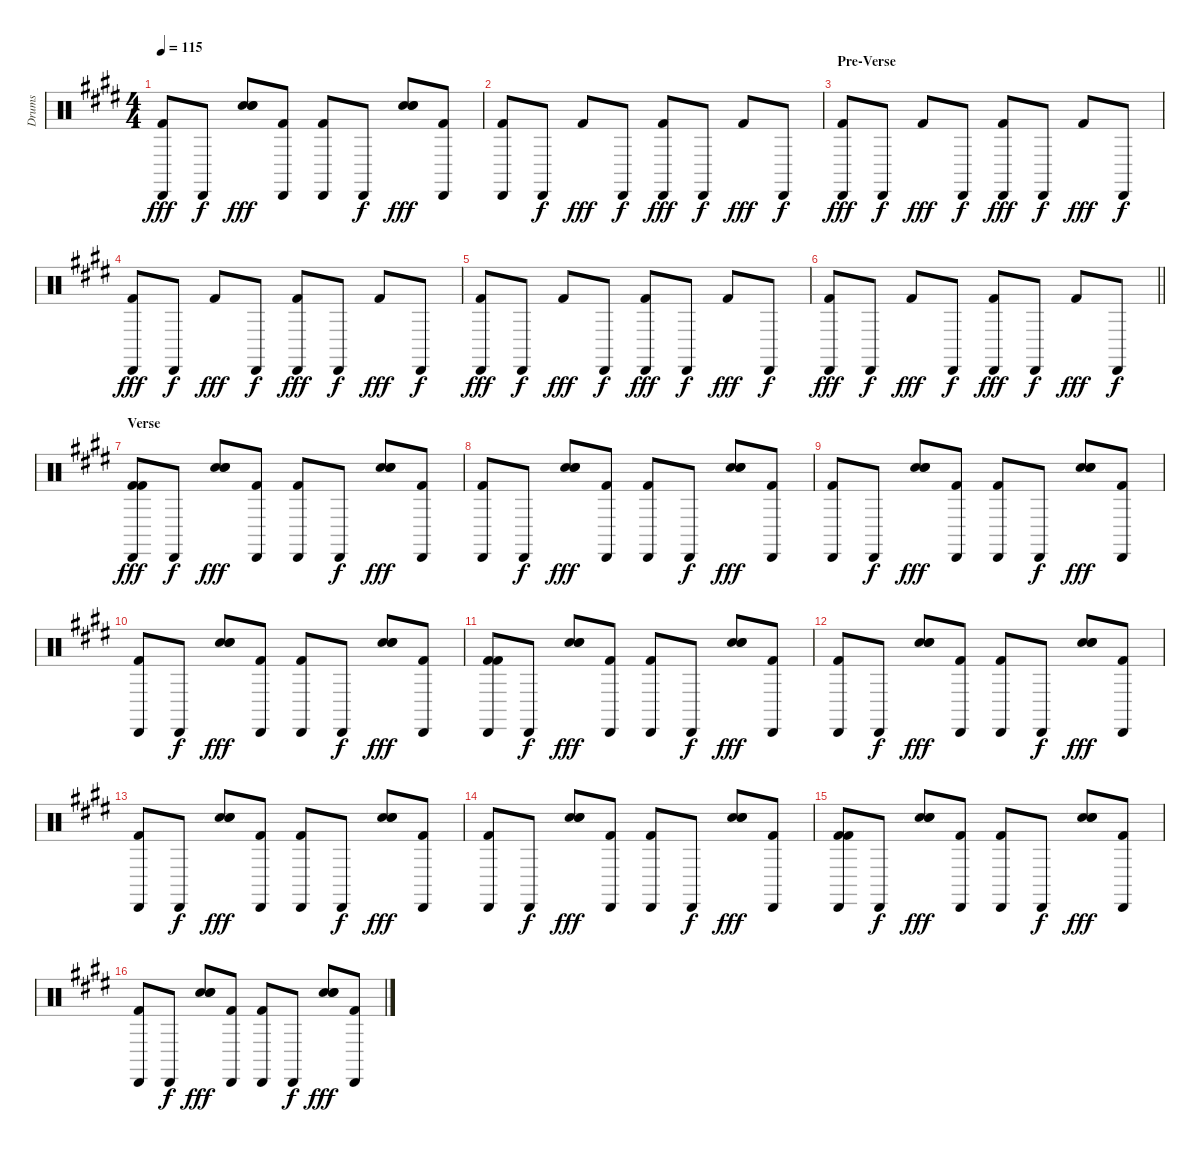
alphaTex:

\track ("Drums" "Drums") {instrument percussion}
\staff {score}
\articulation defaults
\ts (4 4)
\tempo 115
\clef neutral
\ks c#minor
("Cabasa (hit)" "Kick (hit) 2").8{dy fff} "Cabasa (hit)".8{dy f} ("Snare (hit) 2" "Hand Clap (hit)" "Hand Clap (hit)").8{bd 30 dy fff} ("Cabasa (hit)" "Kick (hit) 2").8 ("Cabasa (hit)" "Kick (hit) 2").8 "Cabasa (hit)".8{dy f} ("Snare (hit) 2" "Hand Clap (hit)" "Hand Clap (hit)").8{bd 30 dy fff} ("Cabasa (hit)" "Kick (hit) 2").8 |
("Cabasa (hit)" "Kick (hit) 2").8 "Cabasa (hit)".8{dy f} "Kick (hit) 2".8{dy fff} "Cabasa (hit)".8{dy f} ("Cabasa (hit)" "Kick (hit) 2").8{dy fff} "Cabasa (hit)".8{dy f} "Kick (hit) 2".8{dy fff} "Cabasa (hit)".8{dy f} |
\section ("" "Pre-Verse")
("Cabasa (hit)" "Kick (hit) 2").8{dy fff} "Cabasa (hit)".8{dy f} "Kick (hit) 2".8{dy fff} "Cabasa (hit)".8{dy f} ("Cabasa (hit)" "Kick (hit) 2").8{dy fff} "Cabasa (hit)".8{dy f} "Kick (hit) 2".8{dy fff} "Cabasa (hit)".8{dy f} |
("Cabasa (hit)" "Kick (hit) 2").8{dy fff} "Cabasa (hit)".8{dy f} "Kick (hit) 2".8{dy fff} "Cabasa (hit)".8{dy f} ("Cabasa (hit)" "Kick (hit) 2").8{dy fff} "Cabasa (hit)".8{dy f} "Kick (hit) 2".8{dy fff} "Cabasa (hit)".8{dy f} |
("Cabasa (hit)" "Kick (hit) 2").8{dy fff} "Cabasa (hit)".8{dy f} "Kick (hit) 2".8{dy fff} "Cabasa (hit)".8{dy f} ("Cabasa (hit)" "Kick (hit) 2").8{dy fff} "Cabasa (hit)".8{dy f} "Kick (hit) 2".8{dy fff} "Cabasa (hit)".8{dy f} |
\barLineRight lightlight
("Cabasa (hit)" "Kick (hit) 2").8{dy fff} "Cabasa (hit)".8{dy f} "Kick (hit) 2".8{dy fff} "Cabasa (hit)".8{dy f} ("Cabasa (hit)" "Kick (hit) 2").8{dy fff} "Cabasa (hit)".8{dy f} "Kick (hit) 2".8{dy fff} "Cabasa (hit)".8{dy f} |
\section ("" "Verse")
("Cabasa (hit)" "Kick (hit) 2" "Kick (hit) 2").8{dy fff} "Cabasa (hit)".8{dy f} ("Snare (hit) 2" "Hand Clap (hit)" "Hand Clap (hit)").8{bd 30 dy fff} ("Cabasa (hit)" "Kick (hit) 2").8 ("Cabasa (hit)" "Kick (hit) 2").8 "Cabasa (hit)".8{dy f} ("Snare (hit) 2" "Hand Clap (hit)" "Hand Clap (hit)").8{bd 30 dy fff} ("Cabasa (hit)" "Kick (hit) 2").8 |
("Cabasa (hit)" "Kick (hit) 2").8 "Cabasa (hit)".8{dy f} ("Snare (hit) 2" "Hand Clap (hit)" "Hand Clap (hit)").8{bd 30 dy fff} ("Cabasa (hit)" "Kick (hit) 2").8 ("Cabasa (hit)" "Kick (hit) 2").8 "Cabasa (hit)".8{dy f} ("Snare (hit) 2" "Hand Clap (hit)" "Hand Clap (hit)").8{bd 30 dy fff} ("Cabasa (hit)" "Kick (hit) 2").8 |
("Cabasa (hit)" "Kick (hit) 2").8 "Cabasa (hit)".8{dy f} ("Snare (hit) 2" "Hand Clap (hit)" "Hand Clap (hit)").8{bd 30 dy fff} ("Cabasa (hit)" "Kick (hit) 2").8 ("Cabasa (hit)" "Kick (hit) 2").8 "Cabasa (hit)".8{dy f} ("Snare (hit) 2" "Hand Clap (hit)" "Hand Clap (hit)").8{bd 30 dy fff} ("Cabasa (hit)" "Kick (hit) 2").8 |
("Cabasa (hit)" "Kick (hit) 2").8 "Cabasa (hit)".8{dy f} ("Snare (hit) 2" "Hand Clap (hit)" "Hand Clap (hit)").8{bd 30 dy fff} ("Cabasa (hit)" "Kick (hit) 2").8 ("Cabasa (hit)" "Kick (hit) 2").8 "Cabasa (hit)".8{dy f} ("Snare (hit) 2" "Hand Clap (hit)" "Hand Clap (hit)").8{bd 30 dy fff} ("Cabasa (hit)" "Kick (hit) 2").8 |
("Cabasa (hit)" "Kick (hit) 2" "Kick (hit) 2").8 "Cabasa (hit)".8{dy f} ("Snare (hit) 2" "Hand Clap (hit)" "Hand Clap (hit)").8{bd 30 dy fff} ("Cabasa (hit)" "Kick (hit) 2").8 ("Cabasa (hit)" "Kick (hit) 2").8 "Cabasa (hit)".8{dy f} ("Snare (hit) 2" "Hand Clap (hit)" "Hand Clap (hit)").8{bd 30 dy fff} ("Cabasa (hit)" "Kick (hit) 2").8 |
("Cabasa (hit)" "Kick (hit) 2").8 "Cabasa (hit)".8{dy f} ("Snare (hit) 2" "Hand Clap (hit)" "Hand Clap (hit)").8{bd 30 dy fff} ("Cabasa (hit)" "Kick (hit) 2").8 ("Cabasa (hit)" "Kick (hit) 2").8 "Cabasa (hit)".8{dy f} ("Snare (hit) 2" "Hand Clap (hit)" "Hand Clap (hit)").8{bd 30 dy fff} ("Cabasa (hit)" "Kick (hit) 2").8 |
("Cabasa (hit)" "Kick (hit) 2").8 "Cabasa (hit)".8{dy f} ("Snare (hit) 2" "Hand Clap (hit)" "Hand Clap (hit)").8{bd 30 dy fff} ("Cabasa (hit)" "Kick (hit) 2").8 ("Cabasa (hit)" "Kick (hit) 2").8 "Cabasa (hit)".8{dy f} ("Snare (hit) 2" "Hand Clap (hit)" "Hand Clap (hit)").8{bd 30 dy fff} ("Cabasa (hit)" "Kick (hit) 2").8 |
("Cabasa (hit)" "Kick (hit) 2").8 "Cabasa (hit)".8{dy f} ("Snare (hit) 2" "Hand Clap (hit)" "Hand Clap (hit)").8{bd 30 dy fff} ("Cabasa (hit)" "Kick (hit) 2").8 ("Cabasa (hit)" "Kick (hit) 2").8 "Cabasa (hit)".8{dy f} ("Snare (hit) 2" "Hand Clap (hit)" "Hand Clap (hit)").8{bd 30 dy fff} ("Cabasa (hit)" "Kick (hit) 2").8 |
("Cabasa (hit)" "Kick (hit) 2" "Kick (hit) 2").8 "Cabasa (hit)".8{dy f} ("Snare (hit) 2" "Hand Clap (hit)" "Hand Clap (hit)").8{bd 30 dy fff} ("Cabasa (hit)" "Kick (hit) 2").8 ("Cabasa (hit)" "Kick (hit) 2").8 "Cabasa (hit)".8{dy f} ("Snare (hit) 2" "Hand Clap (hit)" "Hand Clap (hit)").8{bd 30 dy fff} ("Cabasa (hit)" "Kick (hit) 2").8 |
("Cabasa (hit)" "Kick (hit) 2").8 "Cabasa (hit)".8{dy f} ("Snare (hit) 2" "Hand Clap (hit)" "Hand Clap (hit)").8{bd 30 dy fff} ("Cabasa (hit)" "Kick (hit) 2").8 ("Cabasa (hit)" "Kick (hit) 2").8 "Cabasa (hit)".8{dy f} ("Snare (hit) 2" "Hand Clap (hit)" "Hand Clap (hit)").8{bd 30 dy fff} ("Cabasa (hit)" "Kick (hit) 2").8
